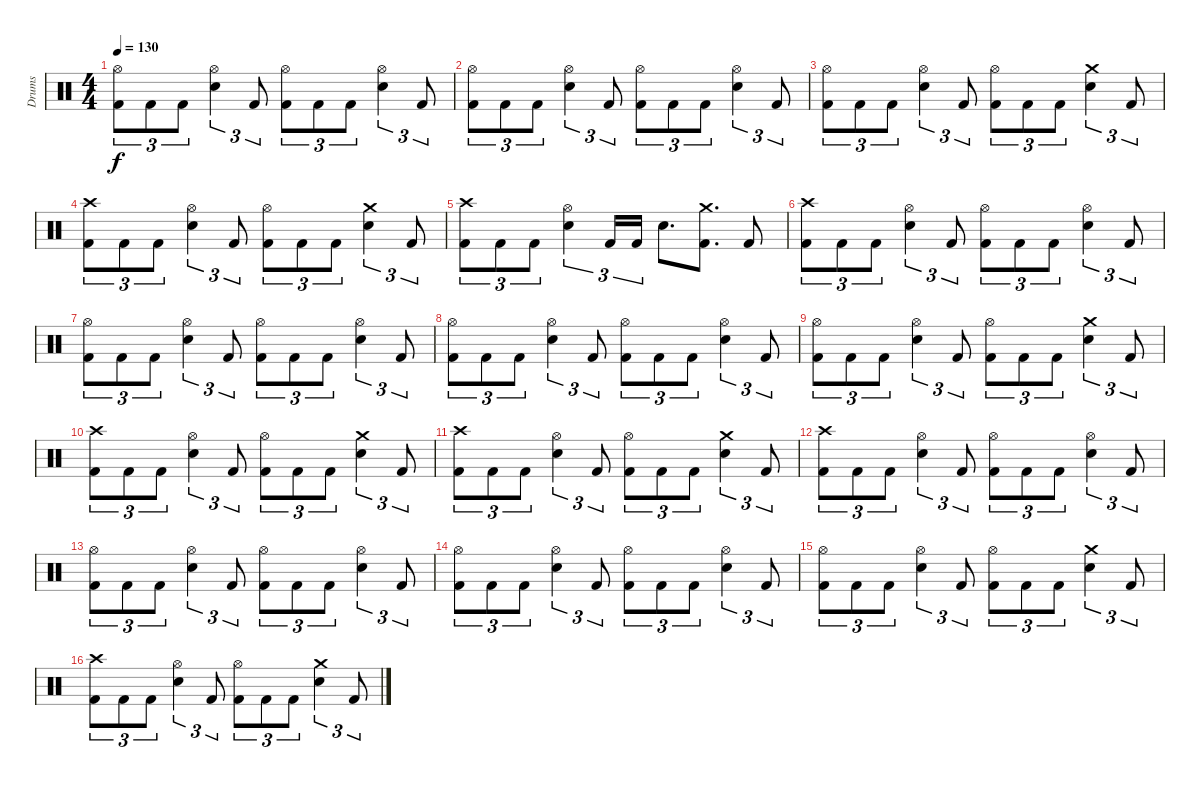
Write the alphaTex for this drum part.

\track ("Drums" "Drums") {instrument percussion}
\staff {score}
\articulation defaults
\ts (4 4)
\tempo 130
\clef neutral
\ks c
("Hi-Hat (open)" "Kick (hit) 2").8{tu (3 2) dy f} "Kick (hit) 2".8{tu (3 2)} "Kick (hit) 2".8{tu (3 2)} ("Hi-Hat (open)" "Electric Snare (hit)").4{tu (3 2)} "Kick (hit) 2".8{tu (3 2)} ("Hi-Hat (open)" "Kick (hit) 2").8{tu (3 2)} "Kick (hit) 2".8{tu (3 2)} "Kick (hit) 2".8{tu (3 2)} ("Hi-Hat (open)" "Electric Snare (hit)").4{tu (3 2)} "Kick (hit) 2".8{tu (3 2)} |
("Hi-Hat (open)" "Kick (hit) 2").8{tu (3 2)} "Kick (hit) 2".8{tu (3 2)} "Kick (hit) 2".8{tu (3 2)} ("Hi-Hat (open)" "Electric Snare (hit)").4{tu (3 2)} "Kick (hit) 2".8{tu (3 2)} ("Hi-Hat (open)" "Kick (hit) 2").8{tu (3 2)} "Kick (hit) 2".8{tu (3 2)} "Kick (hit) 2".8{tu (3 2)} ("Hi-Hat (open)" "Electric Snare (hit)").4{tu (3 2)} "Kick (hit) 2".8{tu (3 2)} |
("Hi-Hat (open)" "Kick (hit) 2").8{tu (3 2)} "Kick (hit) 2".8{tu (3 2)} "Kick (hit) 2".8{tu (3 2)} ("Hi-Hat (open)" "Electric Snare (hit)").4{tu (3 2)} "Kick (hit) 2".8{tu (3 2)} ("Hi-Hat (open)" "Kick (hit) 2").8{tu (3 2)} "Kick (hit) 2".8{tu (3 2)} "Kick (hit) 2".8{tu (3 2)} ("Crash medium (hit)" "Electric Snare (hit)").4{tu (3 2)} "Kick (hit) 2".8{tu (3 2)} |
("Crash high (hit)" "Kick (hit) 2").8{tu (3 2)} "Kick (hit) 2".8{tu (3 2)} "Kick (hit) 2".8{tu (3 2)} ("Hi-Hat (open)" "Electric Snare (hit)").4{tu (3 2)} "Kick (hit) 2".8{tu (3 2)} ("Hi-Hat (open)" "Kick (hit) 2").8{tu (3 2)} "Kick (hit) 2".8{tu (3 2)} "Kick (hit) 2".8{tu (3 2)} ("Crash medium (hit)" "Electric Snare (hit)").4{tu (3 2)} "Kick (hit) 2".8{tu (3 2)} |
("Crash high (hit)" "Kick (hit) 2").8{tu (3 2)} "Kick (hit) 2".8{tu (3 2)} "Kick (hit) 2".8{tu (3 2)} ("Hi-Hat (open)" "Electric Snare (hit)").4{tu (3 2)} "Kick (hit) 2".16{tu (3 2)} "Kick (hit) 2".16{tu (3 2)} "Electric Snare (hit)".8{d} ("Crash medium (hit)" "Kick (hit) 2").8{d} "Kick (hit) 2".8 |
("Crash high (hit)" "Kick (hit) 2").8{tu (3 2)} "Kick (hit) 2".8{tu (3 2)} "Kick (hit) 2".8{tu (3 2)} ("Hi-Hat (open)" "Electric Snare (hit)").4{tu (3 2)} "Kick (hit) 2".8{tu (3 2)} ("Hi-Hat (open)" "Kick (hit) 2").8{tu (3 2)} "Kick (hit) 2".8{tu (3 2)} "Kick (hit) 2".8{tu (3 2)} ("Hi-Hat (open)" "Electric Snare (hit)").4{tu (3 2)} "Kick (hit) 2".8{tu (3 2)} |
("Hi-Hat (open)" "Kick (hit) 2").8{tu (3 2)} "Kick (hit) 2".8{tu (3 2)} "Kick (hit) 2".8{tu (3 2)} ("Hi-Hat (open)" "Electric Snare (hit)").4{tu (3 2)} "Kick (hit) 2".8{tu (3 2)} ("Hi-Hat (open)" "Kick (hit) 2").8{tu (3 2)} "Kick (hit) 2".8{tu (3 2)} "Kick (hit) 2".8{tu (3 2)} ("Hi-Hat (open)" "Electric Snare (hit)").4{tu (3 2)} "Kick (hit) 2".8{tu (3 2)} |
("Hi-Hat (open)" "Kick (hit) 2").8{tu (3 2)} "Kick (hit) 2".8{tu (3 2)} "Kick (hit) 2".8{tu (3 2)} ("Hi-Hat (open)" "Electric Snare (hit)").4{tu (3 2)} "Kick (hit) 2".8{tu (3 2)} ("Hi-Hat (open)" "Kick (hit) 2").8{tu (3 2)} "Kick (hit) 2".8{tu (3 2)} "Kick (hit) 2".8{tu (3 2)} ("Hi-Hat (open)" "Electric Snare (hit)").4{tu (3 2)} "Kick (hit) 2".8{tu (3 2)} |
("Hi-Hat (open)" "Kick (hit) 2").8{tu (3 2)} "Kick (hit) 2".8{tu (3 2)} "Kick (hit) 2".8{tu (3 2)} ("Hi-Hat (open)" "Electric Snare (hit)").4{tu (3 2)} "Kick (hit) 2".8{tu (3 2)} ("Hi-Hat (open)" "Kick (hit) 2").8{tu (3 2)} "Kick (hit) 2".8{tu (3 2)} "Kick (hit) 2".8{tu (3 2)} ("Crash medium (hit)" "Electric Snare (hit)").4{tu (3 2)} "Kick (hit) 2".8{tu (3 2)} |
("Crash high (hit)" "Kick (hit) 2").8{tu (3 2)} "Kick (hit) 2".8{tu (3 2)} "Kick (hit) 2".8{tu (3 2)} ("Hi-Hat (open)" "Electric Snare (hit)").4{tu (3 2)} "Kick (hit) 2".8{tu (3 2)} ("Hi-Hat (open)" "Kick (hit) 2").8{tu (3 2)} "Kick (hit) 2".8{tu (3 2)} "Kick (hit) 2".8{tu (3 2)} ("Crash medium (hit)" "Electric Snare (hit)").4{tu (3 2)} "Kick (hit) 2".8{tu (3 2)} |
("Crash high (hit)" "Kick (hit) 2").8{tu (3 2)} "Kick (hit) 2".8{tu (3 2)} "Kick (hit) 2".8{tu (3 2)} ("Hi-Hat (open)" "Electric Snare (hit)").4{tu (3 2)} "Kick (hit) 2".8{tu (3 2)} ("Hi-Hat (open)" "Kick (hit) 2").8{tu (3 2)} "Kick (hit) 2".8{tu (3 2)} "Kick (hit) 2".8{tu (3 2)} ("Crash medium (hit)" "Electric Snare (hit)").4{tu (3 2)} "Kick (hit) 2".8{tu (3 2)} |
("Crash high (hit)" "Kick (hit) 2").8{tu (3 2)} "Kick (hit) 2".8{tu (3 2)} "Kick (hit) 2".8{tu (3 2)} ("Hi-Hat (open)" "Electric Snare (hit)").4{tu (3 2)} "Kick (hit) 2".8{tu (3 2)} ("Hi-Hat (open)" "Kick (hit) 2").8{tu (3 2)} "Kick (hit) 2".8{tu (3 2)} "Kick (hit) 2".8{tu (3 2)} ("Hi-Hat (open)" "Electric Snare (hit)").4{tu (3 2)} "Kick (hit) 2".8{tu (3 2)} |
("Hi-Hat (open)" "Kick (hit) 2").8{tu (3 2)} "Kick (hit) 2".8{tu (3 2)} "Kick (hit) 2".8{tu (3 2)} ("Hi-Hat (open)" "Electric Snare (hit)").4{tu (3 2)} "Kick (hit) 2".8{tu (3 2)} ("Hi-Hat (open)" "Kick (hit) 2").8{tu (3 2)} "Kick (hit) 2".8{tu (3 2)} "Kick (hit) 2".8{tu (3 2)} ("Hi-Hat (open)" "Electric Snare (hit)").4{tu (3 2)} "Kick (hit) 2".8{tu (3 2)} |
("Hi-Hat (open)" "Kick (hit) 2").8{tu (3 2)} "Kick (hit) 2".8{tu (3 2)} "Kick (hit) 2".8{tu (3 2)} ("Hi-Hat (open)" "Electric Snare (hit)").4{tu (3 2)} "Kick (hit) 2".8{tu (3 2)} ("Hi-Hat (open)" "Kick (hit) 2").8{tu (3 2)} "Kick (hit) 2".8{tu (3 2)} "Kick (hit) 2".8{tu (3 2)} ("Hi-Hat (open)" "Electric Snare (hit)").4{tu (3 2)} "Kick (hit) 2".8{tu (3 2)} |
("Hi-Hat (open)" "Kick (hit) 2").8{tu (3 2)} "Kick (hit) 2".8{tu (3 2)} "Kick (hit) 2".8{tu (3 2)} ("Hi-Hat (open)" "Electric Snare (hit)").4{tu (3 2)} "Kick (hit) 2".8{tu (3 2)} ("Hi-Hat (open)" "Kick (hit) 2").8{tu (3 2)} "Kick (hit) 2".8{tu (3 2)} "Kick (hit) 2".8{tu (3 2)} ("Crash medium (hit)" "Electric Snare (hit)").4{tu (3 2)} "Kick (hit) 2".8{tu (3 2)} |
("Crash high (hit)" "Kick (hit) 2").8{tu (3 2)} "Kick (hit) 2".8{tu (3 2)} "Kick (hit) 2".8{tu (3 2)} ("Hi-Hat (open)" "Electric Snare (hit)").4{tu (3 2)} "Kick (hit) 2".8{tu (3 2)} ("Hi-Hat (open)" "Kick (hit) 2").8{tu (3 2)} "Kick (hit) 2".8{tu (3 2)} "Kick (hit) 2".8{tu (3 2)} ("Crash medium (hit)" "Electric Snare (hit)").4{tu (3 2)} "Kick (hit) 2".8{tu (3 2)}
